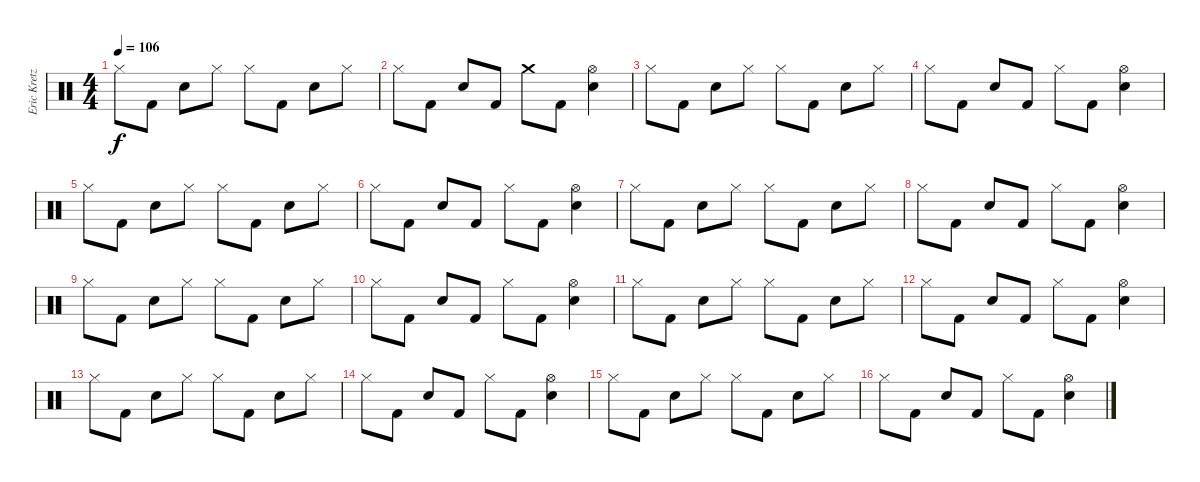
\track ("Eric Kretz" "Eric Kretz") {instrument percussion}
\staff {score}
\articulation defaults
\ts (4 4)
\tempo 106
\clef neutral
\ks c "Hi-Hat (closed)".8{dy f} "Kick (hit) 2".8 "Electric Snare (hit)".8 "Hi-Hat (closed)".8 "Hi-Hat (closed)".8 "Kick (hit) 2".8 "Electric Snare (hit)".8 "Hi-Hat (closed)".8
|
"Hi-Hat (closed)".8 "Kick (hit) 2".8 "Electric Snare (hit)".8 "Kick (hit) 2".8 "Crash medium (hit)".8 "Kick (hit) 2".8 ("Hi-Hat (open)" "Electric Snare (hit)").4 |
"Hi-Hat (closed)".8 "Kick (hit) 2".8 "Electric Snare (hit)".8 "Hi-Hat (closed)".8 "Hi-Hat (closed)".8 "Kick (hit) 2".8 "Electric Snare (hit)".8 "Hi-Hat (closed)".8 |
"Hi-Hat (closed)".8 "Kick (hit) 2".8 "Electric Snare (hit)".8 "Kick (hit) 2".8 "Hi-Hat (closed)".8 "Kick (hit) 2".8 ("Hi-Hat (open)" "Electric Snare (hit)").4 |
"Hi-Hat (closed)".8 "Kick (hit) 2".8 "Electric Snare (hit)".8 "Hi-Hat (closed)".8 "Hi-Hat (closed)".8 "Kick (hit) 2".8 "Electric Snare (hit)".8 "Hi-Hat (closed)".8 |
"Hi-Hat (closed)".8 "Kick (hit) 2".8 "Electric Snare (hit)".8 "Kick (hit) 2".8 "Hi-Hat (closed)".8 "Kick (hit) 2".8 ("Hi-Hat (open)" "Electric Snare (hit)").4 |
"Hi-Hat (closed)".8 "Kick (hit) 2".8 "Electric Snare (hit)".8 "Hi-Hat (closed)".8 "Hi-Hat (closed)".8 "Kick (hit) 2".8 "Electric Snare (hit)".8 "Hi-Hat (closed)".8 |
"Hi-Hat (closed)".8 "Kick (hit) 2".8 "Electric Snare (hit)".8 "Kick (hit) 2".8 "Hi-Hat (closed)".8 "Kick (hit) 2".8 ("Hi-Hat (open)" "Electric Snare (hit)").4 |
"Hi-Hat (closed)".8 "Kick (hit) 2".8 "Electric Snare (hit)".8 "Hi-Hat (closed)".8 "Hi-Hat (closed)".8 "Kick (hit) 2".8 "Electric Snare (hit)".8 "Hi-Hat (closed)".8 |
"Hi-Hat (closed)".8 "Kick (hit) 2".8 "Electric Snare (hit)".8 "Kick (hit) 2".8 "Hi-Hat (closed)".8 "Kick (hit) 2".8 ("Hi-Hat (open)" "Electric Snare (hit)").4 |
"Hi-Hat (closed)".8 "Kick (hit) 2".8 "Electric Snare (hit)".8 "Hi-Hat (closed)".8 "Hi-Hat (closed)".8 "Kick (hit) 2".8 "Electric Snare (hit)".8 "Hi-Hat (closed)".8 |
"Hi-Hat (closed)".8 "Kick (hit) 2".8 "Electric Snare (hit)".8 "Kick (hit) 2".8 "Hi-Hat (closed)".8 "Kick (hit) 2".8 ("Hi-Hat (open)" "Electric Snare (hit)").4 |
"Hi-Hat (closed)".8 "Kick (hit) 2".8 "Electric Snare (hit)".8 "Hi-Hat (closed)".8 "Hi-Hat (closed)".8 "Kick (hit) 2".8 "Electric Snare (hit)".8 "Hi-Hat (closed)".8 |
"Hi-Hat (closed)".8 "Kick (hit) 2".8 "Electric Snare (hit)".8 "Kick (hit) 2".8 "Hi-Hat (closed)".8 "Kick (hit) 2".8 ("Hi-Hat (open)" "Electric Snare (hit)").4 |
"Hi-Hat (closed)".8 "Kick (hit) 2".8 "Electric Snare (hit)".8 "Hi-Hat (closed)".8 "Hi-Hat (closed)".8 "Kick (hit) 2".8 "Electric Snare (hit)".8 "Hi-Hat (closed)".8 |
"Hi-Hat (closed)".8 "Kick (hit) 2".8 "Electric Snare (hit)".8 "Kick (hit) 2".8 "Hi-Hat (closed)".8 "Kick (hit) 2".8 ("Hi-Hat (open)" "Electric Snare (hit)").4
